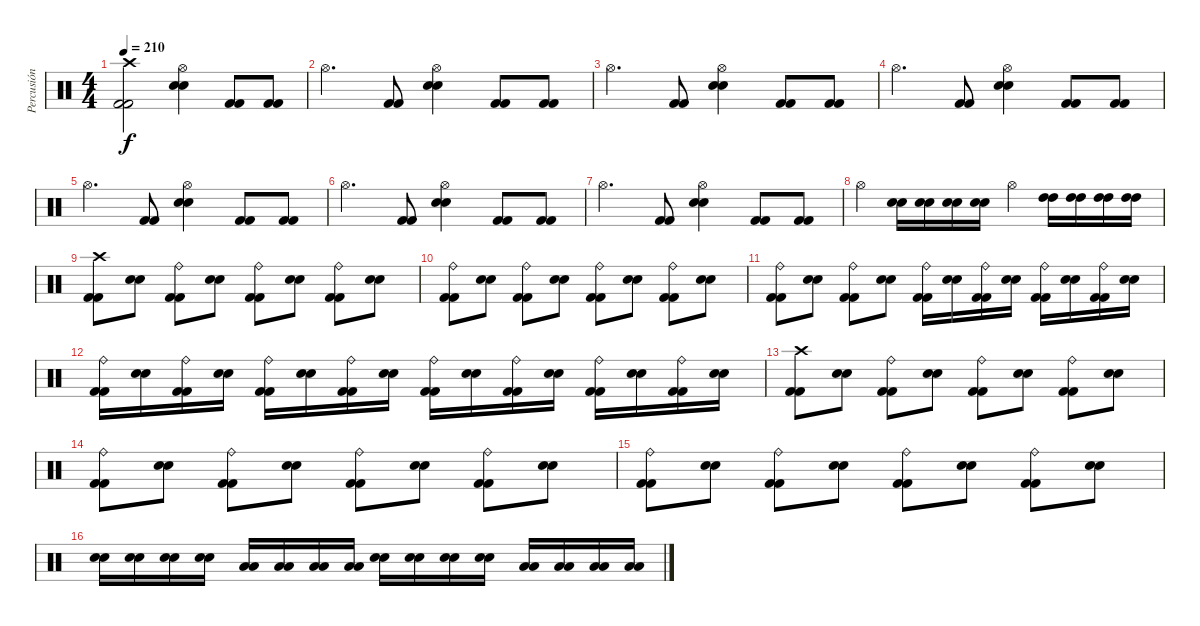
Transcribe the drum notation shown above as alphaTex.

\track ("Percusión" "Percusión") {instrument percussion}
\staff {score}
\articulation defaults
\ts (4 4)
\tempo 210
\clef neutral
\ks c
("Kick (hit) 2" "Kick (hit) 2" "Crash high (hit)").2{dy f} ("Electric Snare (hit)" "Electric Snare (hit)" "Hi-Hat (open)").4 ("Kick (hit) 2" "Kick (hit) 2").8 ("Kick (hit) 2" "Kick (hit) 2").8 |
"Hi-Hat (open)".4{d} ("Kick (hit) 2" "Kick (hit) 2").8 ("Electric Snare (hit)" "Electric Snare (hit)" "Hi-Hat (open)").4 ("Kick (hit) 2" "Kick (hit) 2").8 ("Kick (hit) 2" "Kick (hit) 2").8 |
"Hi-Hat (open)".4{d} ("Kick (hit) 2" "Kick (hit) 2").8 ("Electric Snare (hit)" "Electric Snare (hit)" "Hi-Hat (open)").4 ("Kick (hit) 2" "Kick (hit) 2").8 ("Kick (hit) 2" "Kick (hit) 2").8 |
"Hi-Hat (open)".4{d} ("Kick (hit) 2" "Kick (hit) 2").8 ("Electric Snare (hit)" "Electric Snare (hit)" "Hi-Hat (open)").4 ("Kick (hit) 2" "Kick (hit) 2").8 ("Kick (hit) 2" "Kick (hit) 2").8 |
"Hi-Hat (open)".4{d} ("Kick (hit) 2" "Kick (hit) 2").8 ("Electric Snare (hit)" "Electric Snare (hit)" "Hi-Hat (open)").4 ("Kick (hit) 2" "Kick (hit) 2").8 ("Kick (hit) 2" "Kick (hit) 2").8 |
"Hi-Hat (open)".4{d} ("Kick (hit) 2" "Kick (hit) 2").8 ("Electric Snare (hit)" "Electric Snare (hit)" "Hi-Hat (open)").4 ("Kick (hit) 2" "Kick (hit) 2").8 ("Kick (hit) 2" "Kick (hit) 2").8 |
"Hi-Hat (open)".4{d} ("Kick (hit) 2" "Kick (hit) 2").8 ("Electric Snare (hit)" "Electric Snare (hit)" "Hi-Hat (open)").4 ("Kick (hit) 2" "Kick (hit) 2").8 ("Kick (hit) 2" "Kick (hit) 2").8 |
"Hi-Hat (open)".4 ("Electric Snare (hit)" "Electric Snare (hit)").16 ("Electric Snare (hit)" "Electric Snare (hit)").16 ("Electric Snare (hit)" "Electric Snare (hit)").16 ("Electric Snare (hit)" "Electric Snare (hit)").16 "Hi-Hat (open)".4 ("High Tom (hit)" "High Tom (hit)").16 ("High Tom (hit)" "High Tom (hit)").16 ("High Tom (hit)" "High Tom (hit)").16 ("High Tom (hit)" "High Tom (hit)").16 |
("Kick (hit) 2" "Kick (hit) 2" "Crash high (hit)").8 ("Electric Snare (hit)" "Electric Snare (hit)").8 ("Kick (hit) 2" "Kick (hit) 2" "Ride (bell)").8 ("Electric Snare (hit)" "Electric Snare (hit)").8 ("Kick (hit) 2" "Kick (hit) 2" "Ride (bell)").8 ("Electric Snare (hit)" "Electric Snare (hit)").8 ("Kick (hit) 2" "Kick (hit) 2" "Ride (bell)").8 ("Electric Snare (hit)" "Electric Snare (hit)").8 |
("Kick (hit) 2" "Kick (hit) 2" "Ride (bell)").8 ("Electric Snare (hit)" "Electric Snare (hit)").8 ("Kick (hit) 2" "Kick (hit) 2" "Ride (bell)").8 ("Electric Snare (hit)" "Electric Snare (hit)").8 ("Kick (hit) 2" "Kick (hit) 2" "Ride (bell)").8 ("Electric Snare (hit)" "Electric Snare (hit)").8 ("Kick (hit) 2" "Kick (hit) 2" "Ride (bell)").8 ("Electric Snare (hit)" "Electric Snare (hit)").8 |
("Kick (hit) 2" "Kick (hit) 2" "Ride (bell)").8 ("Electric Snare (hit)" "Electric Snare (hit)").8 ("Kick (hit) 2" "Kick (hit) 2" "Ride (bell)").8 ("Electric Snare (hit)" "Electric Snare (hit)").8 ("Kick (hit) 2" "Kick (hit) 2" "Ride (bell)").16 ("Electric Snare (hit)" "Electric Snare (hit)").16 ("Kick (hit) 2" "Kick (hit) 2" "Ride (bell)").16 ("Electric Snare (hit)" "Electric Snare (hit)").16 ("Kick (hit) 2" "Kick (hit) 2" "Ride (bell)").16 ("Electric Snare (hit)" "Electric Snare (hit)").16 ("Kick (hit) 2" "Kick (hit) 2" "Ride (bell)").16 ("Electric Snare (hit)" "Electric Snare (hit)").16 |
("Kick (hit) 2" "Kick (hit) 2" "Ride (bell)").16 ("Electric Snare (hit)" "Electric Snare (hit)").16 ("Kick (hit) 2" "Kick (hit) 2" "Ride (bell)").16 ("Electric Snare (hit)" "Electric Snare (hit)").16 ("Kick (hit) 2" "Kick (hit) 2" "Ride (bell)").16 ("Electric Snare (hit)" "Electric Snare (hit)").16 ("Kick (hit) 2" "Kick (hit) 2" "Ride (bell)").16 ("Electric Snare (hit)" "Electric Snare (hit)").16 ("Kick (hit) 2" "Kick (hit) 2" "Ride (bell)").16 ("Electric Snare (hit)" "Electric Snare (hit)").16 ("Kick (hit) 2" "Kick (hit) 2" "Ride (bell)").16 ("Electric Snare (hit)" "Electric Snare (hit)").16 ("Kick (hit) 2" "Kick (hit) 2" "Ride (bell)").16 ("Electric Snare (hit)" "Electric Snare (hit)").16 ("Kick (hit) 2" "Kick (hit) 2" "Ride (bell)").16 ("Electric Snare (hit)" "Electric Snare (hit)").16 |
("Kick (hit) 2" "Kick (hit) 2" "Crash high (hit)").8 ("Electric Snare (hit)" "Electric Snare (hit)").8 ("Kick (hit) 2" "Kick (hit) 2" "Ride (bell)").8 ("Electric Snare (hit)" "Electric Snare (hit)").8 ("Kick (hit) 2" "Kick (hit) 2" "Ride (bell)").8 ("Electric Snare (hit)" "Electric Snare (hit)").8 ("Kick (hit) 2" "Kick (hit) 2" "Ride (bell)").8 ("Electric Snare (hit)" "Electric Snare (hit)").8 |
("Kick (hit) 2" "Kick (hit) 2" "Ride (bell)").8 ("Electric Snare (hit)" "Electric Snare (hit)").8 ("Kick (hit) 2" "Kick (hit) 2" "Ride (bell)").8 ("Electric Snare (hit)" "Electric Snare (hit)").8 ("Kick (hit) 2" "Kick (hit) 2" "Ride (bell)").8 ("Electric Snare (hit)" "Electric Snare (hit)").8 ("Kick (hit) 2" "Kick (hit) 2" "Ride (bell)").8 ("Electric Snare (hit)" "Electric Snare (hit)").8 |
("Kick (hit) 2" "Kick (hit) 2" "Ride (bell)").8 ("Electric Snare (hit)" "Electric Snare (hit)").8 ("Kick (hit) 2" "Kick (hit) 2" "Ride (bell)").8 ("Electric Snare (hit)" "Electric Snare (hit)").8 ("Kick (hit) 2" "Kick (hit) 2" "Ride (bell)").8 ("Electric Snare (hit)" "Electric Snare (hit)").8 ("Kick (hit) 2" "Kick (hit) 2" "Ride (bell)").8 ("Electric Snare (hit)" "Electric Snare (hit)").8 |
("Electric Snare (hit)" "Electric Snare (hit)").16 ("Electric Snare (hit)" "Electric Snare (hit)").16 ("Electric Snare (hit)" "Electric Snare (hit)").16 ("Electric Snare (hit)" "Electric Snare (hit)").16 ("Low Tom (hit)" "Low Tom (hit)").16 ("Low Tom (hit)" "Low Tom (hit)").16 ("Low Tom (hit)" "Low Tom (hit)").16 ("Low Tom (hit)" "Low Tom (hit)").16 ("Electric Snare (hit)" "Electric Snare (hit)").16 ("Electric Snare (hit)" "Electric Snare (hit)").16 ("Electric Snare (hit)" "Electric Snare (hit)").16 ("Electric Snare (hit)" "Electric Snare (hit)").16 ("Low Tom (hit)" "Low Tom (hit)").16 ("Low Tom (hit)" "Low Tom (hit)").16 ("Low Tom (hit)" "Low Tom (hit)").16 ("Low Tom (hit)" "Low Tom (hit)").16
